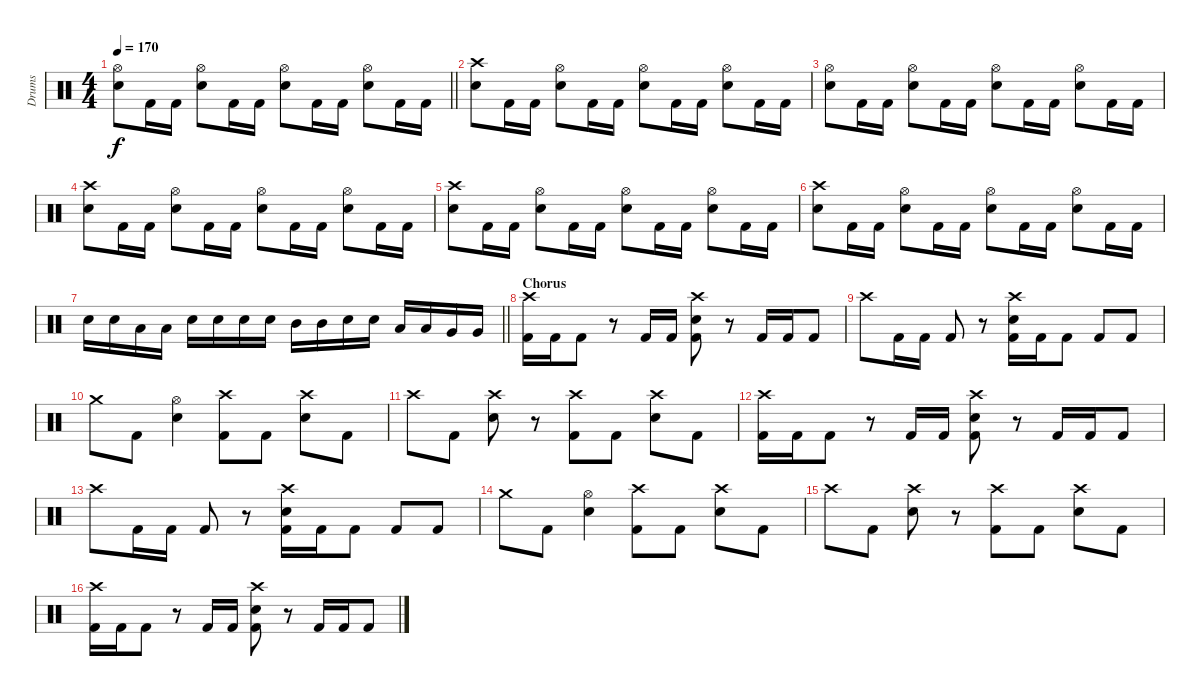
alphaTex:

\track ("Drums" "Drums") {instrument percussion}
\staff {score}
\articulation defaults
\ts (4 4)
\tempo 170
\clef neutral
\barLineRight lightlight
\ks c
("Hi-Hat (open)" "Snare (hit) 2").8{dy f} "Kick (hit) 2".16 "Kick (hit) 2".16 ("Hi-Hat (open)" "Snare (hit) 2").8 "Kick (hit) 2".16 "Kick (hit) 2".16 ("Hi-Hat (open)" "Snare (hit) 2").8 "Kick (hit) 2".16 "Kick (hit) 2".16 ("Hi-Hat (open)" "Snare (hit) 2").8 "Kick (hit) 2".16 "Kick (hit) 2".16 |
("Crash high (hit)" "Snare (hit) 2").8 "Kick (hit) 2".16 "Kick (hit) 2".16 ("Hi-Hat (open)" "Snare (hit) 2").8 "Kick (hit) 2".16 "Kick (hit) 2".16 ("Hi-Hat (open)" "Snare (hit) 2").8 "Kick (hit) 2".16 "Kick (hit) 2".16 ("Hi-Hat (open)" "Snare (hit) 2").8 "Kick (hit) 2".16 "Kick (hit) 2".16 |
("Hi-Hat (open)" "Snare (hit) 2").8 "Kick (hit) 2".16 "Kick (hit) 2".16 ("Hi-Hat (open)" "Snare (hit) 2").8 "Kick (hit) 2".16 "Kick (hit) 2".16 ("Hi-Hat (open)" "Snare (hit) 2").8 "Kick (hit) 2".16 "Kick (hit) 2".16 ("Hi-Hat (open)" "Snare (hit) 2").8 "Kick (hit) 2".16 "Kick (hit) 2".16 |
("Crash high (hit)" "Snare (hit) 2").8 "Kick (hit) 2".16 "Kick (hit) 2".16 ("Hi-Hat (open)" "Snare (hit) 2").8 "Kick (hit) 2".16 "Kick (hit) 2".16 ("Hi-Hat (open)" "Snare (hit) 2").8 "Kick (hit) 2".16 "Kick (hit) 2".16 ("Hi-Hat (open)" "Snare (hit) 2").8 "Kick (hit) 2".16 "Kick (hit) 2".16 |
("Crash high (hit)" "Snare (hit) 2").8 "Kick (hit) 2".16 "Kick (hit) 2".16 ("Hi-Hat (open)" "Snare (hit) 2").8 "Kick (hit) 2".16 "Kick (hit) 2".16 ("Hi-Hat (open)" "Snare (hit) 2").8 "Kick (hit) 2".16 "Kick (hit) 2".16 ("Hi-Hat (open)" "Snare (hit) 2").8 "Kick (hit) 2".16 "Kick (hit) 2".16 |
("Crash high (hit)" "Snare (hit) 2").8 "Kick (hit) 2".16 "Kick (hit) 2".16 ("Hi-Hat (open)" "Snare (hit) 2").8 "Kick (hit) 2".16 "Kick (hit) 2".16 ("Hi-Hat (open)" "Snare (hit) 2").8 "Kick (hit) 2".16 "Kick (hit) 2".16 ("Hi-Hat (open)" "Snare (hit) 2").8 "Kick (hit) 2".16 "Kick (hit) 2".16 |
\barLineRight lightlight "Snare (hit) 2".16 "Snare (hit) 2".16 "Low Tom (hit)".16 "Low Tom (hit)".16 "Snare (hit) 2".16 "Snare (hit) 2".16 "Snare (hit) 2".16 "Snare (hit) 2".16 "Mid Tom (hit)".16 "Mid Tom (hit)".16 "Snare (hit) 2".16 "Snare (hit) 2".16 "Low Tom (hit)".16 "Low Tom (hit)".16 "Very Low Tom (hit)".16 "Very Low Tom (hit)".16
|
\section ("" "Chorus")
("Crash high (hit)" "Kick (hit) 2").16 "Kick (hit) 2".16 "Kick (hit) 2".8 r.8 "Kick (hit) 2".16 "Kick (hit) 2".16 ("Crash high (hit)" "Snare (hit) 2" "Kick (hit) 2").8 r.8 "Kick (hit) 2".16 "Kick (hit) 2".16 "Kick (hit) 2".8 |
"Crash high (hit)".8 "Kick (hit) 2".16 "Kick (hit) 2".16 "Kick (hit) 2".8 r.8 ("Crash high (hit)" "Snare (hit) 2" "Kick (hit) 2").16 "Kick (hit) 2".16 "Kick (hit) 2".8 "Kick (hit) 2".8 "Kick (hit) 2".8 |
"Crash medium (hit)".8 "Kick (hit) 2".8 ("Hi-Hat (open)" "Snare (hit) 2").4 ("Crash high (hit)" "Kick (hit) 2").8 "Kick (hit) 2".8 ("Crash high (hit)" "Snare (hit) 2").8 "Kick (hit) 2".8 |
"Crash high (hit)".8 "Kick (hit) 2".8 ("Crash high (hit)" "Snare (hit) 2").8 r.8 ("Crash high (hit)" "Kick (hit) 2").8 "Kick (hit) 2".8 ("Crash high (hit)" "Snare (hit) 2").8 "Kick (hit) 2".8 |
("Crash high (hit)" "Kick (hit) 2").16 "Kick (hit) 2".16 "Kick (hit) 2".8 r.8 "Kick (hit) 2".16 "Kick (hit) 2".16 ("Crash high (hit)" "Snare (hit) 2" "Kick (hit) 2").8 r.8 "Kick (hit) 2".16 "Kick (hit) 2".16 "Kick (hit) 2".8 |
"Crash high (hit)".8 "Kick (hit) 2".16 "Kick (hit) 2".16 "Kick (hit) 2".8 r.8 ("Crash high (hit)" "Snare (hit) 2" "Kick (hit) 2").16 "Kick (hit) 2".16 "Kick (hit) 2".8 "Kick (hit) 2".8 "Kick (hit) 2".8 |
"Crash medium (hit)".8 "Kick (hit) 2".8 ("Hi-Hat (open)" "Snare (hit) 2").4 ("Crash high (hit)" "Kick (hit) 2").8 "Kick (hit) 2".8 ("Crash high (hit)" "Snare (hit) 2").8 "Kick (hit) 2".8 |
"Crash high (hit)".8 "Kick (hit) 2".8 ("Crash high (hit)" "Snare (hit) 2").8 r.8 ("Crash high (hit)" "Kick (hit) 2").8 "Kick (hit) 2".8 ("Crash high (hit)" "Snare (hit) 2").8 "Kick (hit) 2".8 |
("Crash high (hit)" "Kick (hit) 2").16 "Kick (hit) 2".16 "Kick (hit) 2".8 r.8 "Kick (hit) 2".16 "Kick (hit) 2".16 ("Crash high (hit)" "Snare (hit) 2" "Kick (hit) 2").8 r.8 "Kick (hit) 2".16 "Kick (hit) 2".16 "Kick (hit) 2".8
